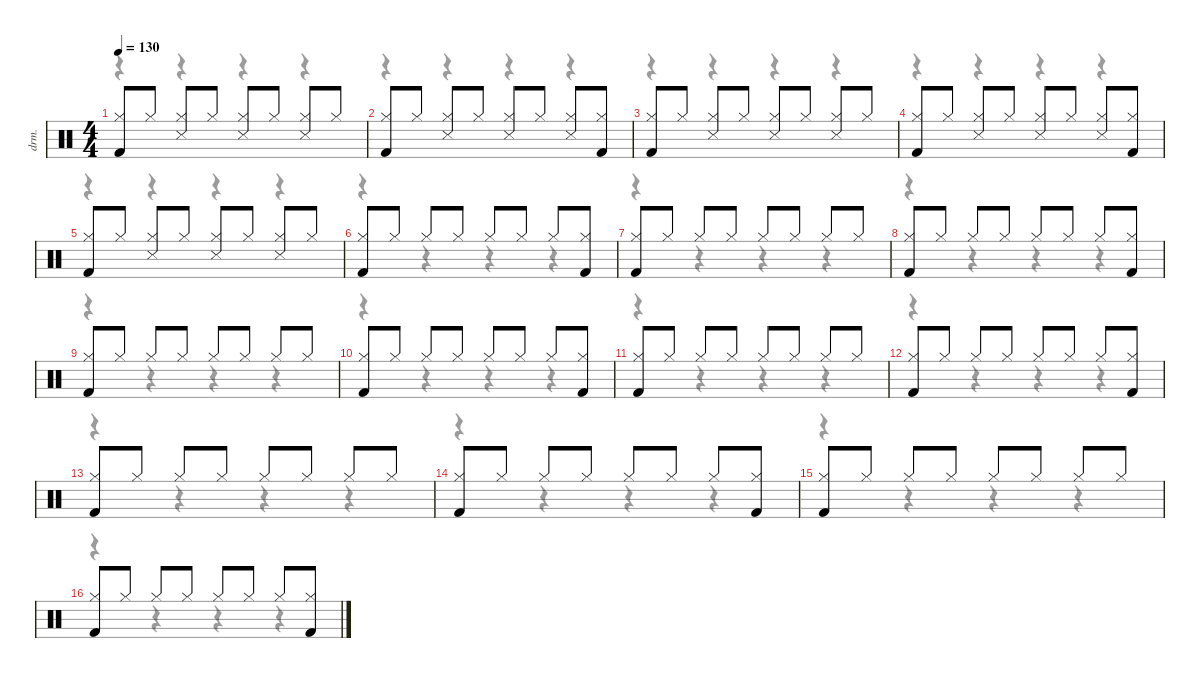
\defaultSystemsLayout 4
\hideDynamics
\bracketExtendMode nobrackets
\track ("Drums" "drm.") {instrument percussion}
\staff {score}
\articulation defaults
\voice
\ts (4 4)
\tempo 130
\clef neutral
\ks c
("Kick (hit) 2" "Hi-Hat (closed)").8{dy fff beam Up} "Hi-Hat (closed)".8{beam Up} ("Snare (side stick) 3" "Hi-Hat (closed)").8{beam Up} "Hi-Hat (closed)".8{beam Up} ("Snare (side stick) 3" "Hi-Hat (closed)").8{beam Up} "Hi-Hat (closed)".8{beam Up} ("Snare (side stick) 3" "Hi-Hat (closed)").8{beam Up} "Hi-Hat (closed)".8{beam Up} |
("Kick (hit) 2" "Hi-Hat (closed)").8{beam Up} "Hi-Hat (closed)".8{beam Up} ("Snare (side stick) 3" "Hi-Hat (closed)").8{beam Up} "Hi-Hat (closed)".8{beam Up} ("Snare (side stick) 3" "Hi-Hat (closed)").8{beam Up} "Hi-Hat (closed)".8{beam Up} ("Snare (side stick) 3" "Hi-Hat (closed)").8{beam Up} ("Kick (hit) 2" "Hi-Hat (closed)").8{beam Up} |
("Kick (hit) 2" "Hi-Hat (closed)").8{beam Up} "Hi-Hat (closed)".8{beam Up} ("Snare (side stick) 3" "Hi-Hat (closed)").8{beam Up} "Hi-Hat (closed)".8{beam Up} ("Snare (side stick) 3" "Hi-Hat (closed)").8{beam Up} "Hi-Hat (closed)".8{beam Up} ("Snare (side stick) 3" "Hi-Hat (closed)").8{beam Up} "Hi-Hat (closed)".8{beam Up} |
("Kick (hit) 2" "Hi-Hat (closed)").8{beam Up} "Hi-Hat (closed)".8{beam Up} ("Snare (side stick) 3" "Hi-Hat (closed)").8{beam Up} "Hi-Hat (closed)".8{beam Up} ("Snare (side stick) 3" "Hi-Hat (closed)").8{beam Up} "Hi-Hat (closed)".8{beam Up} ("Snare (side stick) 3" "Hi-Hat (closed)").8{beam Up} ("Kick (hit) 2" "Hi-Hat (closed)").8{beam Up} |
("Kick (hit) 2" "Hi-Hat (closed)").8{beam Up} "Hi-Hat (closed)".8{beam Up} ("Snare (side stick) 3" "Hi-Hat (closed)").8{beam Up} "Hi-Hat (closed)".8{beam Up} ("Snare (side stick) 3" "Hi-Hat (closed)").8{beam Up} "Hi-Hat (closed)".8{beam Up} ("Snare (side stick) 3" "Hi-Hat (closed)").8{beam Up} "Hi-Hat (closed)".8{beam Up} |
("Kick (hit) 2" "Hi-Hat (closed)").8{beam Up} "Hi-Hat (closed)".8{beam Up} "Hi-Hat (closed)".8{beam Up} "Hi-Hat (closed)".8{beam Up} "Hi-Hat (closed)".8{beam Up} "Hi-Hat (closed)".8{beam Up} "Hi-Hat (closed)".8{beam Up} ("Kick (hit) 2" "Hi-Hat (closed)").8{beam Up} |
("Kick (hit) 2" "Hi-Hat (closed)").8{beam Up} "Hi-Hat (closed)".8{beam Up} "Hi-Hat (closed)".8{beam Up} "Hi-Hat (closed)".8{beam Up} "Hi-Hat (closed)".8{beam Up} "Hi-Hat (closed)".8{beam Up} "Hi-Hat (closed)".8{beam Up} "Hi-Hat (closed)".8{beam Up} |
("Kick (hit) 2" "Hi-Hat (closed)").8{beam Up} "Hi-Hat (closed)".8{beam Up} "Hi-Hat (closed)".8{beam Up} "Hi-Hat (closed)".8{beam Up} "Hi-Hat (closed)".8{beam Up} "Hi-Hat (closed)".8{beam Up} "Hi-Hat (closed)".8{beam Up} ("Kick (hit) 2" "Hi-Hat (closed)").8{beam Up} |
("Kick (hit) 2" "Hi-Hat (closed)").8{beam Up} "Hi-Hat (closed)".8{beam Up} "Hi-Hat (closed)".8{beam Up} "Hi-Hat (closed)".8{beam Up} "Hi-Hat (closed)".8{beam Up} "Hi-Hat (closed)".8{beam Up} "Hi-Hat (closed)".8{beam Up} "Hi-Hat (closed)".8{beam Up} |
("Kick (hit) 2" "Hi-Hat (closed)").8{beam Up} "Hi-Hat (closed)".8{beam Up} "Hi-Hat (closed)".8{beam Up} "Hi-Hat (closed)".8{beam Up} "Hi-Hat (closed)".8{beam Up} "Hi-Hat (closed)".8{beam Up} "Hi-Hat (closed)".8{beam Up} ("Kick (hit) 2" "Hi-Hat (closed)").8{beam Up} |
("Kick (hit) 2" "Hi-Hat (closed)").8{beam Up} "Hi-Hat (closed)".8{beam Up} "Hi-Hat (closed)".8{beam Up} "Hi-Hat (closed)".8{beam Up} "Hi-Hat (closed)".8{beam Up} "Hi-Hat (closed)".8{beam Up} "Hi-Hat (closed)".8{beam Up} "Hi-Hat (closed)".8{beam Up} |
("Kick (hit) 2" "Hi-Hat (closed)").8{beam Up} "Hi-Hat (closed)".8{beam Up} "Hi-Hat (closed)".8{beam Up} "Hi-Hat (closed)".8{beam Up} "Hi-Hat (closed)".8{beam Up} "Hi-Hat (closed)".8{beam Up} "Hi-Hat (closed)".8{beam Up} ("Kick (hit) 2" "Hi-Hat (closed)").8{beam Up} |
("Kick (hit) 2" "Hi-Hat (closed)").8{beam Up} "Hi-Hat (closed)".8{beam Up} "Hi-Hat (closed)".8{beam Up} "Hi-Hat (closed)".8{beam Up} "Hi-Hat (closed)".8{beam Up} "Hi-Hat (closed)".8{beam Up} "Hi-Hat (closed)".8{beam Up} "Hi-Hat (closed)".8{beam Up} |
("Kick (hit) 2" "Hi-Hat (closed)").8{beam Up} "Hi-Hat (closed)".8{beam Up} "Hi-Hat (closed)".8{beam Up} "Hi-Hat (closed)".8{beam Up} "Hi-Hat (closed)".8{beam Up} "Hi-Hat (closed)".8{beam Up} "Hi-Hat (closed)".8{beam Up} ("Kick (hit) 2" "Hi-Hat (closed)").8{beam Up} |
("Kick (hit) 2" "Hi-Hat (closed)").8{beam Up} "Hi-Hat (closed)".8{beam Up} "Hi-Hat (closed)".8{beam Up} "Hi-Hat (closed)".8{beam Up} "Hi-Hat (closed)".8{beam Up} "Hi-Hat (closed)".8{beam Up} "Hi-Hat (closed)".8{beam Up} "Hi-Hat (closed)".8{beam Up} |
("Kick (hit) 2" "Hi-Hat (closed)").8{beam Up} "Hi-Hat (closed)".8{beam Up} "Hi-Hat (closed)".8{beam Up} "Hi-Hat (closed)".8{beam Up} "Hi-Hat (closed)".8{beam Up} "Hi-Hat (closed)".8{beam Up} "Hi-Hat (closed)".8{beam Up} ("Kick (hit) 2" "Hi-Hat (closed)").8{beam Up}
\voice
\clef neutral
\ottava regular
\simile none
\ks c
r.4{dy mf beam Down} r.4{beam Down} r.4{beam Down} r.4{beam Down} |
r.4{beam Down} r.4{beam Down} r.4{beam Down} r.4{beam Down} |
r.4{beam Down} r.4{beam Down} r.4{beam Down} r.4{beam Down} |
r.4{beam Down} r.4{beam Down} r.4{beam Down} r.4{beam Down} |
r.4{beam Down} r.4{beam Down} r.4{beam Down} r.4{beam Down} |
r.4{beam Down} r.4{beam Down} r.4{beam Down} r.4{beam Down} |
r.4{beam Down} r.4{beam Down} r.4{beam Down} r.4{beam Down} |
r.4{beam Down} r.4{beam Down} r.4{beam Down} r.4{beam Down} |
r.4{beam Down} r.4{beam Down} r.4{beam Down} r.4{beam Down} |
r.4{beam Down} r.4{beam Down} r.4{beam Down} r.4{beam Down} |
r.4{beam Down} r.4{beam Down} r.4{beam Down} r.4{beam Down} |
r.4{beam Down} r.4{beam Down} r.4{beam Down} r.4{beam Down} |
r.4{beam Down} r.4{beam Down} r.4{beam Down} r.4{beam Down} |
r.4{beam Down} r.4{beam Down} r.4{beam Down} r.4{beam Down} |
r.4{beam Down} r.4{beam Down} r.4{beam Down} r.4{beam Down} |
r.4{beam Down} r.4{beam Down} r.4{beam Down} r.4{beam Down}
